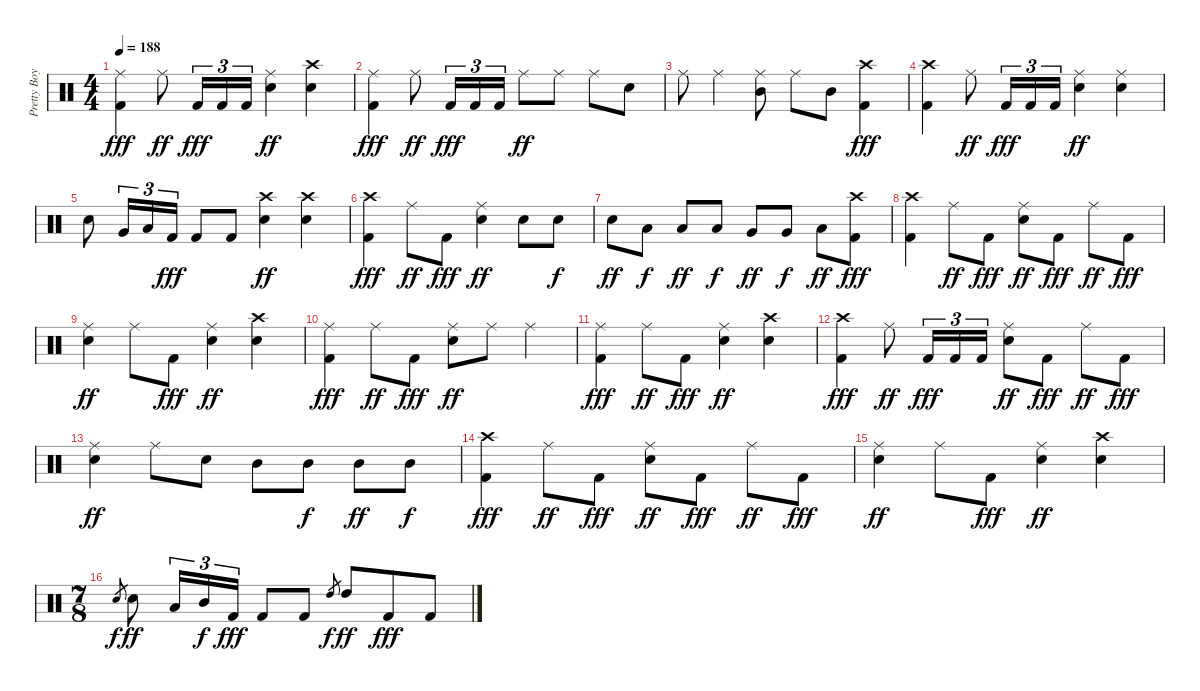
\track ("Pretty Boy Geoff (Lars Drums)" "Pretty Boy") {instrument percussion}
\staff {score}
\articulation defaults
\ts (4 4)
\tempo 188
\clef neutral
\ks c
("Ride (middle)" "Kick (hit) 2").4{dy fff} "Ride (middle)".8{dy ff} "Kick (hit) 2".16{tu (3 2) dy fff} "Kick (hit) 2".16{tu (3 2)} "Kick (hit) 2".16{tu (3 2)} ("Ride (middle)" "Snare (hit) 2").4{dy ff} ("Crash high (hit)" "Snare (hit) 2").4 |
("Ride (middle)" "Kick (hit) 2").4{dy fff} "Ride (middle)".8{dy ff} "Kick (hit) 2".16{tu (3 2) dy fff} "Kick (hit) 2".16{tu (3 2)} "Kick (hit) 2".16{tu (3 2)} "Ride (middle)".8{dy ff} "Ride (middle)".8 "Ride (middle)".8 "Snare (hit) 2".8 |
"Ride (middle)".8 "Ride (middle)".4 ("Ride (middle)" "Mid Tom (hit)").8 "Ride (middle)".8 "Mid Tom (hit)".8 ("Crash high (hit)" "Kick (hit) 2").4{dy fff} |
("Crash high (hit)" "Kick (hit) 2").4 "Ride (middle)".8{dy ff} "Kick (hit) 2".16{tu (3 2) dy fff} "Kick (hit) 2".16{tu (3 2)} "Kick (hit) 2".16{tu (3 2)} ("Ride (middle)" "Snare (hit) 2").4{dy ff} ("Ride (middle)" "Snare (hit) 2").4 |
"Snare (hit) 2".8 "Very Low Tom (hit)".16{tu (3 2)} "Low Tom (hit)".16{tu (3 2)} "Kick (hit) 2".16{tu (3 2) dy fff} "Kick (hit) 2".8 "Kick (hit) 2".8 ("Crash high (hit)" "Snare (hit) 2").4{dy ff} ("Crash high (hit)" "Snare (hit) 2").4 |
("Crash high (hit)" "Kick (hit) 2").4{dy fff} "Ride (middle)".8{dy ff} "Kick (hit) 2".8{dy fff} ("Ride (middle)" "Snare (hit) 2").4{dy ff} "Snare (hit) 2".8 "Snare (hit) 2".8{dy f} |
"Snare (hit) 2".8{dy ff} "Low Tom (hit)".8{dy f} "Low Tom (hit)".8{dy ff} "Low Tom (hit)".8{dy f} "Very Low Tom (hit)".8{dy ff} "Very Low Tom (hit)".8{dy f} "Low Floor Tom (hit)".8{dy ff} ("Crash high (hit)" "Kick (hit) 2").8{dy fff} |
("Crash high (hit)" "Kick (hit) 2").4 "Ride (middle)".8{dy ff} "Kick (hit) 2".8{dy fff} ("Ride (middle)" "Snare (hit) 2").8{dy ff} "Kick (hit) 2".8{dy fff} "Ride (middle)".8{dy ff} "Kick (hit) 2".8{dy fff} |
("Ride (middle)" "Snare (hit) 2").4{dy ff} "Ride (middle)".8 "Kick (hit) 2".8{dy fff} ("Ride (middle)" "Snare (hit) 2").4{dy ff} ("Crash high (hit)" "Snare (hit) 2").4 |
("Ride (middle)" "Kick (hit) 2").4{dy fff} "Ride (middle)".8{dy ff} "Kick (hit) 2".8{dy fff} ("Ride (middle)" "Snare (hit) 2").8{dy ff} "Ride (middle)".8 "Ride (middle)".4 |
("Ride (middle)" "Kick (hit) 2").4{dy fff} "Ride (middle)".8{dy ff} "Kick (hit) 2".8{dy fff} ("Ride (middle)" "Snare (hit) 2").4{dy ff} ("Crash high (hit)" "Snare (hit) 2").4 |
("Crash high (hit)" "Kick (hit) 2").4{dy fff} "Ride (middle)".8{dy ff} "Kick (hit) 2".16{tu (3 2) dy fff} "Kick (hit) 2".16{tu (3 2)} "Kick (hit) 2".16{tu (3 2)} ("Ride (middle)" "Snare (hit) 2").8{dy ff} "Kick (hit) 2".8{dy fff} "Ride (middle)".8{dy ff} "Kick (hit) 2".8{dy fff} |
("Ride (middle)" "Snare (hit) 2").4{dy ff} "Ride (middle)".8 "Snare (hit) 2".8 "Mid Tom (hit)".8 "Mid Tom (hit)".8{dy f} "Mid Tom (hit)".8{dy ff} "Mid Tom (hit)".8{dy f} |
("Crash high (hit)" "Kick (hit) 2").4{dy fff} "Ride (middle)".8{dy ff} "Kick (hit) 2".8{dy fff} ("Ride (middle)" "Snare (hit) 2").8{dy ff} "Kick (hit) 2".8{dy fff} "Ride (middle)".8{dy ff} "Kick (hit) 2".8{dy fff} |
("Ride (middle)" "Snare (hit) 2").4{dy ff} "Ride (middle)".8 "Kick (hit) 2".8{dy fff} ("Ride (middle)" "Snare (hit) 2").4{dy ff} ("Crash high (hit)" "Snare (hit) 2").4 |
\ts (7 8)
"Snare (hit) 2"{sl}.8{gr dy f} "Snare (hit) 2".8{dy ff} "Low Tom (hit)".16{tu (3 2)} "Mid Tom (hit)".16{tu (3 2) dy f} "Kick (hit) 2".16{tu (3 2) dy fff} "Kick (hit) 2".8 "Kick (hit) 2".8 "High Tom (hit)"{sl}.8{gr dy f} "High Tom (hit)".8{dy ff} "Kick (hit) 2".8{dy fff} "Kick (hit) 2".8
